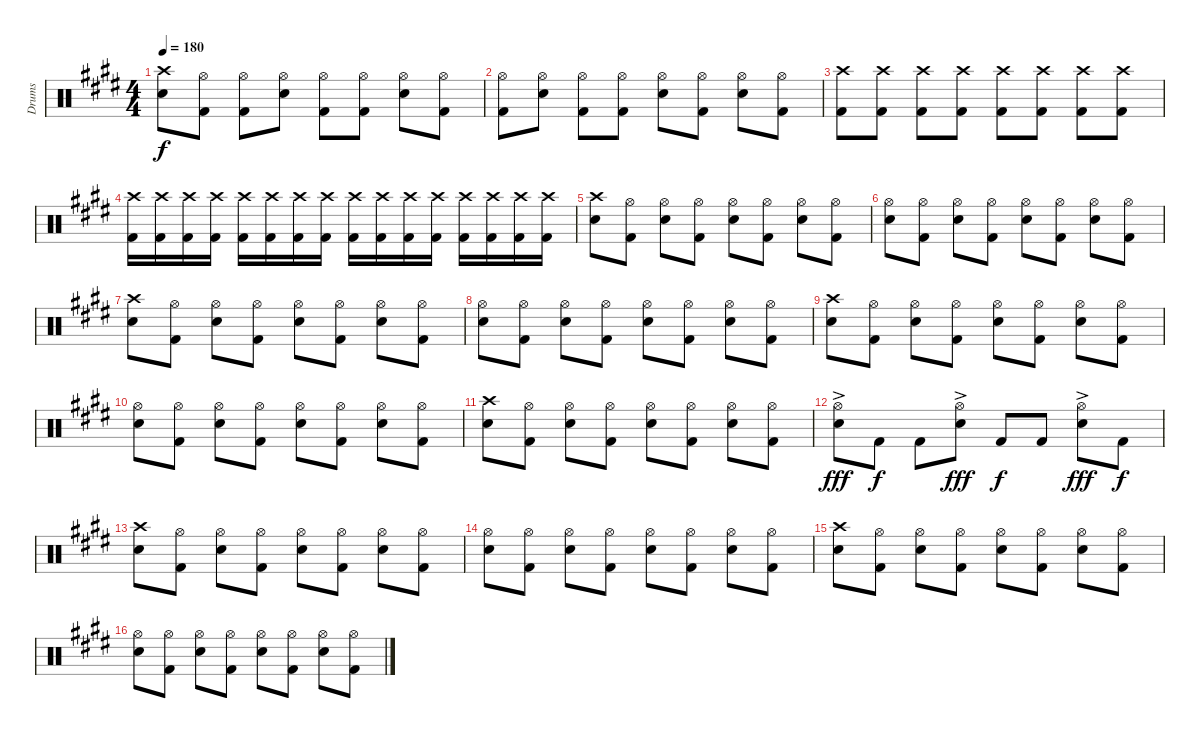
\track ("Drums" "Drums") {instrument percussion}
\staff {score}
\articulation defaults
\ts (4 4)
\tempo 180
\clef neutral
\ks c#minor
("Crash high (hit)" "Snare (hit) 2").8{dy f} ("Hi-Hat (open)" "Kick (hit) 2").8 ("Hi-Hat (open)" "Kick (hit) 2").8 ("Hi-Hat (open)" "Snare (hit) 2").8 ("Hi-Hat (open)" "Kick (hit) 2").8 ("Hi-Hat (open)" "Kick (hit) 2").8 ("Hi-Hat (open)" "Snare (hit) 2").8 ("Hi-Hat (open)" "Kick (hit) 2").8 |
("Hi-Hat (open)" "Kick (hit) 2").8 ("Hi-Hat (open)" "Snare (hit) 2").8 ("Hi-Hat (open)" "Kick (hit) 2").8 ("Hi-Hat (open)" "Kick (hit) 2").8 ("Hi-Hat (open)" "Snare (hit) 2").8 ("Hi-Hat (open)" "Kick (hit) 2").8 ("Hi-Hat (open)" "Snare (hit) 2").8 ("Hi-Hat (open)" "Kick (hit) 2").8 |
("Crash high (hit)" "Kick (hit) 2").8 ("Crash high (hit)" "Kick (hit) 2").8 ("Crash high (hit)" "Kick (hit) 2").8 ("Crash high (hit)" "Kick (hit) 2").8 ("Crash high (hit)" "Kick (hit) 2").8 ("Crash high (hit)" "Kick (hit) 2").8 ("Crash high (hit)" "Kick (hit) 2").8 ("Crash high (hit)" "Kick (hit) 2").8 |
("Crash high (hit)" "Kick (hit) 2").16 ("Crash high (hit)" "Kick (hit) 2").16 ("Crash high (hit)" "Kick (hit) 2").16 ("Crash high (hit)" "Kick (hit) 2").16 ("Crash high (hit)" "Kick (hit) 2").16 ("Crash high (hit)" "Kick (hit) 2").16 ("Crash high (hit)" "Kick (hit) 2").16 ("Crash high (hit)" "Kick (hit) 2").16 ("Crash high (hit)" "Kick (hit) 2").16 ("Crash high (hit)" "Kick (hit) 2").16 ("Crash high (hit)" "Kick (hit) 2").16 ("Crash high (hit)" "Kick (hit) 2").16 ("Crash high (hit)" "Kick (hit) 2").16 ("Crash high (hit)" "Kick (hit) 2").16 ("Crash high (hit)" "Kick (hit) 2").16 ("Crash high (hit)" "Kick (hit) 2").16 |
("Crash high (hit)" "Snare (hit) 2").8 ("Hi-Hat (open)" "Kick (hit) 2").8 ("Hi-Hat (open)" "Snare (hit) 2").8 ("Hi-Hat (open)" "Kick (hit) 2").8 ("Hi-Hat (open)" "Snare (hit) 2").8 ("Hi-Hat (open)" "Kick (hit) 2").8 ("Hi-Hat (open)" "Snare (hit) 2").8 ("Hi-Hat (open)" "Kick (hit) 2").8 |
("Hi-Hat (open)" "Snare (hit) 2").8 ("Hi-Hat (open)" "Kick (hit) 2").8 ("Hi-Hat (open)" "Snare (hit) 2").8 ("Hi-Hat (open)" "Kick (hit) 2").8 ("Hi-Hat (open)" "Snare (hit) 2").8 ("Hi-Hat (open)" "Kick (hit) 2").8 ("Hi-Hat (open)" "Snare (hit) 2").8 ("Hi-Hat (open)" "Kick (hit) 2").8 |
("Crash high (hit)" "Snare (hit) 2").8 ("Hi-Hat (open)" "Kick (hit) 2").8 ("Hi-Hat (open)" "Snare (hit) 2").8 ("Hi-Hat (open)" "Kick (hit) 2").8 ("Hi-Hat (open)" "Snare (hit) 2").8 ("Hi-Hat (open)" "Kick (hit) 2").8 ("Hi-Hat (open)" "Snare (hit) 2").8 ("Hi-Hat (open)" "Kick (hit) 2").8 |
("Hi-Hat (open)" "Snare (hit) 2").8 ("Hi-Hat (open)" "Kick (hit) 2").8 ("Hi-Hat (open)" "Snare (hit) 2").8 ("Hi-Hat (open)" "Kick (hit) 2").8 ("Hi-Hat (open)" "Snare (hit) 2").8 ("Hi-Hat (open)" "Kick (hit) 2").8 ("Hi-Hat (open)" "Snare (hit) 2").8 ("Hi-Hat (open)" "Kick (hit) 2").8 |
("Crash high (hit)" "Snare (hit) 2").8 ("Hi-Hat (open)" "Kick (hit) 2").8 ("Hi-Hat (open)" "Snare (hit) 2").8 ("Hi-Hat (open)" "Kick (hit) 2").8 ("Hi-Hat (open)" "Snare (hit) 2").8 ("Hi-Hat (open)" "Kick (hit) 2").8 ("Hi-Hat (open)" "Snare (hit) 2").8 ("Hi-Hat (open)" "Kick (hit) 2").8 |
("Hi-Hat (open)" "Snare (hit) 2").8 ("Hi-Hat (open)" "Kick (hit) 2").8 ("Hi-Hat (open)" "Snare (hit) 2").8 ("Hi-Hat (open)" "Kick (hit) 2").8 ("Hi-Hat (open)" "Snare (hit) 2").8 ("Hi-Hat (open)" "Kick (hit) 2").8 ("Hi-Hat (open)" "Snare (hit) 2").8 ("Hi-Hat (open)" "Kick (hit) 2").8 |
("Crash high (hit)" "Snare (hit) 2").8 ("Hi-Hat (open)" "Kick (hit) 2").8 ("Hi-Hat (open)" "Snare (hit) 2").8 ("Hi-Hat (open)" "Kick (hit) 2").8 ("Hi-Hat (open)" "Snare (hit) 2").8 ("Hi-Hat (open)" "Kick (hit) 2").8 ("Hi-Hat (open)" "Snare (hit) 2").8 ("Hi-Hat (open)" "Kick (hit) 2").8 |
("Hi-Hat (open)"{ac} "Snare (hit) 2").8{dy fff} "Kick (hit) 2".8{dy f} "Kick (hit) 2".8 ("Hi-Hat (open)"{ac} "Snare (hit) 2").8{dy fff} "Kick (hit) 2".8{dy f} "Kick (hit) 2".8 ("Hi-Hat (open)"{ac} "Snare (hit) 2").8{dy fff} "Kick (hit) 2".8{dy f} |
("Crash high (hit)" "Snare (hit) 2").8 ("Hi-Hat (open)" "Kick (hit) 2").8 ("Hi-Hat (open)" "Snare (hit) 2").8 ("Hi-Hat (open)" "Kick (hit) 2").8 ("Hi-Hat (open)" "Snare (hit) 2").8 ("Hi-Hat (open)" "Kick (hit) 2").8 ("Hi-Hat (open)" "Snare (hit) 2").8 ("Hi-Hat (open)" "Kick (hit) 2").8 |
("Hi-Hat (open)" "Snare (hit) 2").8 ("Hi-Hat (open)" "Kick (hit) 2").8 ("Hi-Hat (open)" "Snare (hit) 2").8 ("Hi-Hat (open)" "Kick (hit) 2").8 ("Hi-Hat (open)" "Snare (hit) 2").8 ("Hi-Hat (open)" "Kick (hit) 2").8 ("Hi-Hat (open)" "Snare (hit) 2").8 ("Hi-Hat (open)" "Kick (hit) 2").8 |
("Crash high (hit)" "Snare (hit) 2").8 ("Hi-Hat (open)" "Kick (hit) 2").8 ("Hi-Hat (open)" "Snare (hit) 2").8 ("Hi-Hat (open)" "Kick (hit) 2").8 ("Hi-Hat (open)" "Snare (hit) 2").8 ("Hi-Hat (open)" "Kick (hit) 2").8 ("Hi-Hat (open)" "Snare (hit) 2").8 ("Hi-Hat (open)" "Kick (hit) 2").8 |
("Hi-Hat (open)" "Snare (hit) 2").8 ("Hi-Hat (open)" "Kick (hit) 2").8 ("Hi-Hat (open)" "Snare (hit) 2").8 ("Hi-Hat (open)" "Kick (hit) 2").8 ("Hi-Hat (open)" "Snare (hit) 2").8 ("Hi-Hat (open)" "Kick (hit) 2").8 ("Hi-Hat (open)" "Snare (hit) 2").8 ("Hi-Hat (open)" "Kick (hit) 2").8
